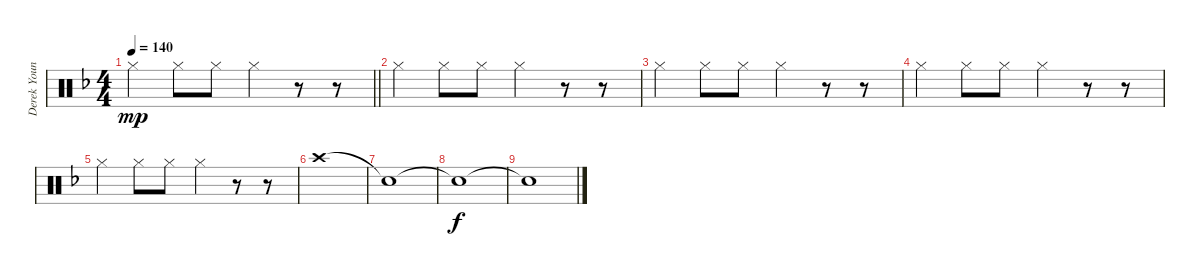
\track ("Derek Youngsma" "Derek Youn") {instrument percussion}
\staff {score}
\articulation defaults
\ts (4 4)
\tempo 140
\clef neutral
\barLineRight lightlight
\ks f "Hi-Hat (closed)".4{dy mp} "Hi-Hat (closed)".8 "Hi-Hat (closed)".8 "Hi-Hat (closed)".4
r.8 r.8 |
"Hi-Hat (closed)".4 "Hi-Hat (closed)".8 "Hi-Hat (closed)".8 "Hi-Hat (closed)".4 r.8 r.8 |
"Hi-Hat (closed)".4 "Hi-Hat (closed)".8 "Hi-Hat (closed)".8 "Hi-Hat (closed)".4 r.8 r.8 |
"Hi-Hat (closed)".4 "Hi-Hat (closed)".8 "Hi-Hat (closed)".8 "Hi-Hat (closed)".4 r.8 r.8 |
"Hi-Hat (closed)".4 "Hi-Hat (closed)".8 "Hi-Hat (closed)".8 "Hi-Hat (closed)".4 r.8 r.8 |
"Crash high (hit)".1 |
"Snare (hit)"{t}.1 |
"Snare (hit)"{t}.1{dy f} |
"Snare (hit)"{t}.1
